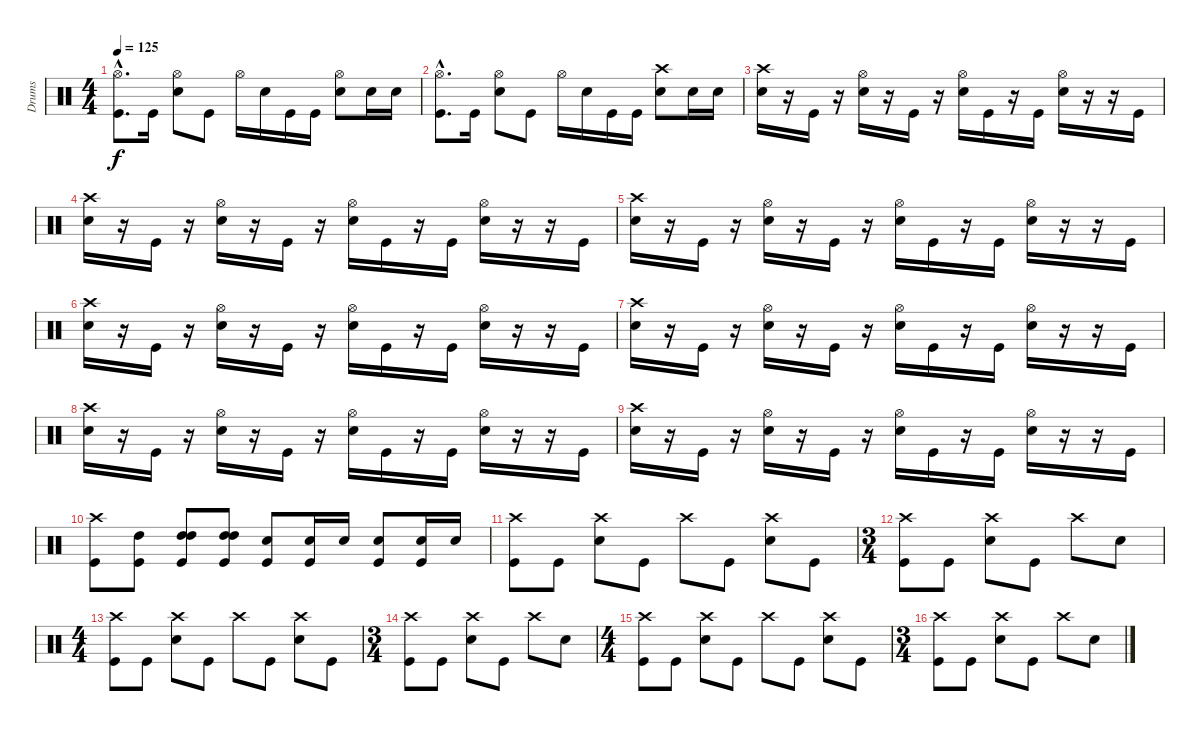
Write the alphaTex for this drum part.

\track ("Drums" "Drums") {instrument percussion}
\staff {score}
\articulation defaults
\ts (4 4)
\tempo 125
\clef neutral
\ks c
("Kick (hit)"{hac} "Hi-Hat (open)"{hac}).8{d dy f} "Kick (hit)".16 ("Snare (hit) 2" "Hi-Hat (open)").8 "Kick (hit)".8 "Hi-Hat (open)".16 "Snare (hit) 2".16 "Kick (hit)".16 "Kick (hit)".16 ("Snare (hit) 2" "Hi-Hat (open)").8 "Snare (hit) 2".16 "Snare (hit) 2".16 |
("Kick (hit)"{hac} "Hi-Hat (open)"{hac}).8{d} "Kick (hit)".16 ("Snare (hit) 2" "Hi-Hat (open)").8 "Kick (hit)".8 "Hi-Hat (open)".16 "Snare (hit) 2".16 "Kick (hit)".16 "Kick (hit)".16 ("Snare (hit) 2" "Crash high (hit)").8 "Snare (hit) 2".16 "Snare (hit) 2".16 |
("Snare (hit) 2" "Crash high (hit)").16 r.16 "Kick (hit)".16 r.16 ("Snare (hit) 2" "Hi-Hat (open)").16 r.16 "Kick (hit)".16 r.16 ("Snare (hit) 2" "Hi-Hat (open)").16 "Kick (hit)".16 r.16 "Kick (hit)".16 ("Snare (hit) 2" "Hi-Hat (open)").16 r.16 r.16 "Kick (hit)".16 |
("Snare (hit) 2" "Crash high (hit)").16 r.16 "Kick (hit)".16 r.16 ("Snare (hit) 2" "Hi-Hat (open)").16 r.16 "Kick (hit)".16 r.16 ("Snare (hit) 2" "Hi-Hat (open)").16 "Kick (hit)".16 r.16 "Kick (hit)".16 ("Snare (hit) 2" "Hi-Hat (open)").16 r.16 r.16 "Kick (hit)".16 |
("Snare (hit) 2" "Crash high (hit)").16 r.16 "Kick (hit)".16 r.16 ("Snare (hit) 2" "Hi-Hat (open)").16 r.16 "Kick (hit)".16 r.16 ("Snare (hit) 2" "Hi-Hat (open)").16 "Kick (hit)".16 r.16 "Kick (hit)".16 ("Snare (hit) 2" "Hi-Hat (open)").16 r.16 r.16 "Kick (hit)".16 |
("Snare (hit) 2" "Crash high (hit)").16 r.16 "Kick (hit)".16 r.16 ("Snare (hit) 2" "Hi-Hat (open)").16 r.16 "Kick (hit)".16 r.16 ("Snare (hit) 2" "Hi-Hat (open)").16 "Kick (hit)".16 r.16 "Kick (hit)".16 ("Snare (hit) 2" "Hi-Hat (open)").16 r.16 r.16 "Kick (hit)".16 |
("Snare (hit) 2" "Crash high (hit)").16 r.16 "Kick (hit)".16 r.16 ("Snare (hit) 2" "Hi-Hat (open)").16 r.16 "Kick (hit)".16 r.16 ("Snare (hit) 2" "Hi-Hat (open)").16 "Kick (hit)".16 r.16 "Kick (hit)".16 ("Snare (hit) 2" "Hi-Hat (open)").16 r.16 r.16 "Kick (hit)".16 |
("Snare (hit) 2" "Crash high (hit)").16 r.16 "Kick (hit)".16 r.16 ("Snare (hit) 2" "Hi-Hat (open)").16 r.16 "Kick (hit)".16 r.16 ("Snare (hit) 2" "Hi-Hat (open)").16 "Kick (hit)".16 r.16 "Kick (hit)".16 ("Snare (hit) 2" "Hi-Hat (open)").16 r.16 r.16 "Kick (hit)".16 |
("Snare (hit) 2" "Crash high (hit)").16 r.16 "Kick (hit)".16 r.16 ("Snare (hit) 2" "Hi-Hat (open)").16 r.16 "Kick (hit)".16 r.16 ("Snare (hit) 2" "Hi-Hat (open)").16 "Kick (hit)".16 r.16 "Kick (hit)".16 ("Snare (hit) 2" "Hi-Hat (open)").16 r.16 r.16 "Kick (hit)".16 |
("Kick (hit)" "Crash high (hit)").8 ("Kick (hit)" "High Tom (hit)").8 ("Kick (hit)" "High Tom (hit)" "High Tom (hit)").8 ("Kick (hit)" "High Tom (hit)" "High Tom (hit)").8 ("Kick (hit)" "Snare (hit) 2").8 ("Kick (hit)" "Snare (hit) 2").16 "Snare (hit) 2".16 ("Kick (hit)" "Snare (hit) 2").8 ("Kick (hit)" "Snare (hit) 2").16 "Snare (hit) 2".16 |
("Kick (hit)" "Crash high (hit)").8 "Kick (hit)".8 ("Snare (hit) 2" "Crash high (hit)").8 "Kick (hit)".8 "Crash high (hit)".8 "Kick (hit)".8 ("Snare (hit) 2" "Crash high (hit)").8 "Kick (hit)".8 |
\ts (3 4)
("Kick (hit)" "Crash high (hit)").8 "Kick (hit)".8 ("Snare (hit) 2" "Crash high (hit)").8 "Kick (hit)".8 "Crash high (hit)".8 "Snare (hit) 2".8 |
\ts (4 4)
("Kick (hit)" "Crash high (hit)").8 "Kick (hit)".8 ("Snare (hit) 2" "Crash high (hit)").8 "Kick (hit)".8 "Crash high (hit)".8 "Kick (hit)".8 ("Snare (hit) 2" "Crash high (hit)").8 "Kick (hit)".8 |
\ts (3 4)
("Kick (hit)" "Crash high (hit)").8 "Kick (hit)".8 ("Snare (hit) 2" "Crash high (hit)").8 "Kick (hit)".8 "Crash high (hit)".8 "Snare (hit) 2".8 |
\ts (4 4)
("Kick (hit)" "Crash high (hit)").8 "Kick (hit)".8 ("Snare (hit) 2" "Crash high (hit)").8 "Kick (hit)".8 "Crash high (hit)".8 "Kick (hit)".8 ("Snare (hit) 2" "Crash high (hit)").8 "Kick (hit)".8 |
\ts (3 4)
("Kick (hit)" "Crash high (hit)").8 "Kick (hit)".8 ("Snare (hit) 2" "Crash high (hit)").8 "Kick (hit)".8 "Crash high (hit)".8 "Snare (hit) 2".8
